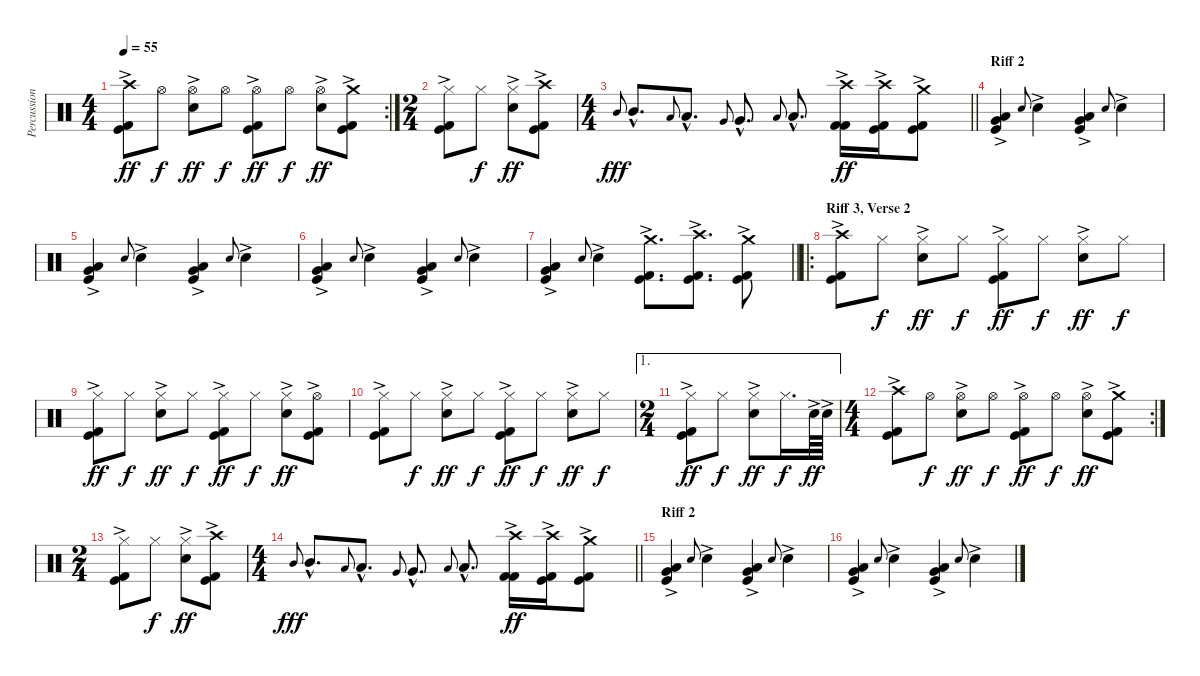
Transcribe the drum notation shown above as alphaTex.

\track ("Percussion" "Percussion") {instrument percussion}
\staff {score}
\articulation defaults
\rc 2
\ts (4 4)
\tempo 55
\clef neutral
\ks c
("Kick (hit)"{ac} "Kick (hit) 2"{ac} "Crash high (hit)").8{dy ff} "Hi-Hat (open)".8{dy f} ("Snare (hit) 2"{ac} "Hi-Hat (open)").8{dy ff} "Hi-Hat (open)".8{dy f} ("Kick (hit) 2"{ac} "Kick (hit)"{ac} "Hi-Hat (open)").8{dy ff} "Hi-Hat (open)".8{dy f} ("Snare (hit) 2"{ac} "Hi-Hat (open)").8{dy ff} ("Kick (hit)"{ac} "Kick (hit) 2"{ac} "Crash medium (hit)").8 |
\ts (2 4)
("Kick (hit)"{ac} "Kick (hit) 2"{ac} "Hi-Hat (closed)").8 "Hi-Hat (closed)".8{dy f} ("Snare (hit) 2"{ac} "Hi-Hat (closed)").8{dy ff} ("Crash high (hit)" "Kick (hit)"{ac} "Kick (hit) 2"{ac}).8 |
\ts (4 4)
\barLineRight lightlight "Mid Tom (hit)".8{gr onbeat dy fff} "Mid Tom (hit)"{hac}.8{d} "Low Tom (hit)".8{gr onbeat} "Low Tom (hit)"{hac}.8{d} "Very Low Tom (hit)".8{gr onbeat} "Very Low Tom (hit)"{hac}.8{d} "Low Floor Tom (hit)".8{gr onbeat} "Low Floor Tom (hit)"{hac}.8{d}
("Kick (hit) 2"{ac} "Kick (hit) 2"{ac} "Crash high (hit)").16{dy ff} ("Kick (hit) 2"{ac} "Kick (hit)"{ac} "Crash high (hit)").16 ("Kick (hit) 2"{ac} "Kick (hit)"{ac} "Crash medium (hit)").8 |
\section ("" "Riff 2")
("Low Floor Tom (hit)"{ac} "Very Low Tom (hit)"{ac} "Kick (hit)"{ac}).4 "Snare (hit) 2"{h}.8{gr onbeat} "Snare (hit) 2"{ac}.4 ("Low Floor Tom (hit)"{ac} "Very Low Tom (hit)"{ac} "Kick (hit)"{ac}).4 "Snare (hit) 2".8{gr onbeat} "Snare (hit) 2"{ac}.4 |
("Low Floor Tom (hit)"{ac} "Very Low Tom (hit)"{ac} "Kick (hit)"{ac}).4 "Snare (hit) 2".8{gr onbeat} "Snare (hit) 2"{ac}.4 ("Low Floor Tom (hit)"{ac} "Very Low Tom (hit)"{ac} "Kick (hit)"{ac}).4 "Snare (hit) 2".8{gr onbeat} "Snare (hit) 2"{ac}.4 |
("Low Floor Tom (hit)"{ac} "Very Low Tom (hit)"{ac} "Kick (hit)"{ac}).4 "Snare (hit) 2"{h}.8{gr onbeat} "Snare (hit) 2"{ac}.4 ("Low Floor Tom (hit)"{ac} "Very Low Tom (hit)"{ac} "Kick (hit)"{ac}).4 "Snare (hit) 2".8{gr onbeat} "Snare (hit) 2"{ac}.4 |
\barLineRight lightlight
("Low Floor Tom (hit)"{ac} "Very Low Tom (hit)"{ac} "Kick (hit)"{ac}).4 "Snare (hit) 2".8{gr onbeat} "Snare (hit) 2"{ac}.4 ("Crash medium (hit)" "Kick (hit)"{ac} "Kick (hit) 2"{ac}).8{d} ("Crash high (hit)" "Kick (hit)"{ac} "Kick (hit) 2"{ac}).8{d} ("Crash medium (hit)" "Kick (hit)"{ac} "Kick (hit) 2"{ac}).8 |
\ro
\section ("" "Riff 3, Verse 2")
("Kick (hit)"{ac} "Kick (hit) 2"{ac} "Crash high (hit)").8 "Hi-Hat (closed)".8{dy f} ("Snare (hit) 2"{ac} "Hi-Hat (closed)").8{dy ff} "Hi-Hat (closed)".8{dy f} ("Kick (hit)"{ac} "Kick (hit) 2"{ac} "Hi-Hat (closed)").8{dy ff} "Hi-Hat (closed)".8{dy f} ("Snare (hit) 2"{ac} "Hi-Hat (closed)").8{dy ff} "Hi-Hat (closed)".8{dy f} |
("Kick (hit)"{ac} "Kick (hit) 2"{ac} "Hi-Hat (closed)").8{dy ff} "Hi-Hat (closed)".8{dy f} ("Snare (hit) 2"{ac} "Hi-Hat (closed)").8{dy ff} "Hi-Hat (closed)".8{dy f} ("Kick (hit)"{ac} "Kick (hit) 2"{ac} "Hi-Hat (closed)").8{dy ff} "Hi-Hat (closed)".8{dy f} ("Snare (hit) 2"{ac} "Hi-Hat (closed)").8{dy ff} ("Kick (hit)"{ac} "Kick (hit) 2"{ac} "Hi-Hat (open)").8 |
("Kick (hit)"{ac} "Kick (hit) 2"{ac} "Hi-Hat (closed)").8 "Hi-Hat (closed)".8{dy f} ("Snare (hit) 2"{ac} "Hi-Hat (closed)").8{dy ff} "Hi-Hat (closed)".8{dy f} ("Kick (hit)"{ac} "Kick (hit) 2"{ac} "Hi-Hat (closed)").8{dy ff} "Hi-Hat (closed)".8{dy f} ("Snare (hit) 2"{ac} "Hi-Hat (closed)").8{dy ff} "Hi-Hat (closed)".8{dy f} |
\ae 1
\ts (2 4)
("Kick (hit)"{ac} "Kick (hit) 2"{ac} "Hi-Hat (closed)").8{dy ff} "Hi-Hat (closed)".8{dy f} ("Snare (hit) 2"{ac} "Hi-Hat (closed)").8{dy ff} "Hi-Hat (closed)".16{d dy f} "Snare (hit) 2"{ac}.64{dy ff} "Snare (hit) 2"{ac}.64 |
\rc 2
\ts (4 4)
("Kick (hit)"{ac} "Kick (hit) 2"{ac} "Crash high (hit)").8 "Hi-Hat (open)".8{dy f} ("Snare (hit) 2"{ac} "Hi-Hat (open)").8{dy ff} "Hi-Hat (open)".8{dy f} ("Kick (hit) 2"{ac} "Kick (hit)"{ac} "Hi-Hat (open)").8{dy ff} "Hi-Hat (open)".8{dy f} ("Snare (hit) 2"{ac} "Hi-Hat (open)").8{dy ff} ("Kick (hit)"{ac} "Kick (hit) 2"{ac} "Crash medium (hit)").8 |
\ts (2 4)
("Kick (hit)"{ac} "Kick (hit) 2"{ac} "Hi-Hat (closed)").8 "Hi-Hat (closed)".8{dy f} ("Snare (hit) 2"{ac} "Hi-Hat (closed)").8{dy ff} ("Crash high (hit)" "Kick (hit)"{ac} "Kick (hit) 2"{ac}).8 |
\ts (4 4)
\barLineRight lightlight "Mid Tom (hit)".8{gr onbeat dy fff} "Mid Tom (hit)"{hac}.8{d} "Low Tom (hit)".8{gr onbeat} "Low Tom (hit)"{hac}.8{d} "Very Low Tom (hit)".8{gr onbeat} "Very Low Tom (hit)"{hac}.8{d} "Low Floor Tom (hit)".8{gr onbeat} "Low Floor Tom (hit)"{hac}.8{d}
("Kick (hit) 2"{ac} "Kick (hit) 2"{ac} "Crash high (hit)").16{dy ff} ("Kick (hit) 2"{ac} "Kick (hit)"{ac} "Crash high (hit)").16 ("Kick (hit) 2"{ac} "Kick (hit)"{ac} "Crash medium (hit)").8 |
\section ("" "Riff 2")
("Low Floor Tom (hit)"{ac} "Very Low Tom (hit)"{ac} "Kick (hit)"{ac}).4 "Snare (hit) 2"{h}.8{gr onbeat} "Snare (hit) 2"{ac}.4 ("Low Floor Tom (hit)"{ac} "Very Low Tom (hit)"{ac} "Kick (hit)"{ac}).4 "Snare (hit) 2".8{gr onbeat} "Snare (hit) 2"{ac}.4 |
("Low Floor Tom (hit)"{ac} "Very Low Tom (hit)"{ac} "Kick (hit)"{ac}).4 "Snare (hit) 2".8{gr onbeat} "Snare (hit) 2"{ac}.4 ("Low Floor Tom (hit)"{ac} "Very Low Tom (hit)"{ac} "Kick (hit)"{ac}).4 "Snare (hit) 2".8{gr onbeat} "Snare (hit) 2"{ac}.4
